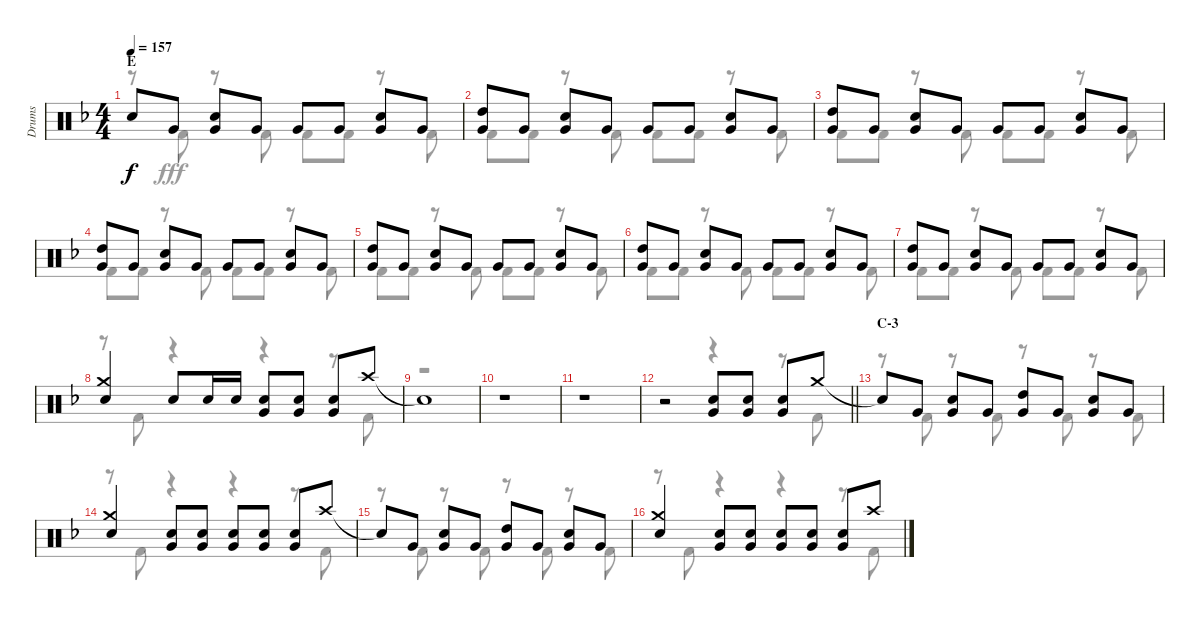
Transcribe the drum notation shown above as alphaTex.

\track ("Drums" "Drums") {instrument percussion}
\staff {score}
\articulation defaults
\voice
\ts (4 4)
\section ("" "E")
\tempo 157
\clef neutral
\ks f "Snare (hit)"{t}.8{dy f} "Very Low Tom (hit)".8
("Snare (hit) 2" "Very Low Tom (hit)").8 "Very Low Tom (hit)".8 "Very Low Tom (hit)".8 "Very Low Tom (hit)".8 ("Snare (hit) 2" "Very Low Tom (hit)").8 "Very Low Tom (hit)".8 |
("High Tom (hit)" "Very Low Tom (hit)").8 "Very Low Tom (hit)".8 ("Snare (hit) 2" "Very Low Tom (hit)").8 "Very Low Tom (hit)".8 "Very Low Tom (hit)".8 "Very Low Tom (hit)".8 ("Snare (hit) 2" "Very Low Tom (hit)").8 "Very Low Tom (hit)".8 |
("High Tom (hit)" "Very Low Tom (hit)").8 "Very Low Tom (hit)".8 ("Snare (hit) 2" "Very Low Tom (hit)").8 "Very Low Tom (hit)".8 "Very Low Tom (hit)".8 "Very Low Tom (hit)".8 ("Snare (hit) 2" "Very Low Tom (hit)").8 "Very Low Tom (hit)".8 |
("High Tom (hit)" "Very Low Tom (hit)").8 "Very Low Tom (hit)".8 ("Snare (hit) 2" "Very Low Tom (hit)").8 "Very Low Tom (hit)".8 "Very Low Tom (hit)".8 "Very Low Tom (hit)".8 ("Snare (hit) 2" "Very Low Tom (hit)").8 "Very Low Tom (hit)".8 |
("High Tom (hit)" "Very Low Tom (hit)").8 "Very Low Tom (hit)".8 ("Snare (hit) 2" "Very Low Tom (hit)").8 "Very Low Tom (hit)".8 "Very Low Tom (hit)".8 "Very Low Tom (hit)".8 ("Snare (hit) 2" "Very Low Tom (hit)").8 "Very Low Tom (hit)".8 |
("High Tom (hit)" "Very Low Tom (hit)").8 "Very Low Tom (hit)".8 ("Snare (hit) 2" "Very Low Tom (hit)").8 "Very Low Tom (hit)".8 "Very Low Tom (hit)".8 "Very Low Tom (hit)".8 ("Snare (hit) 2" "Very Low Tom (hit)").8 "Very Low Tom (hit)".8 |
("High Tom (hit)" "Very Low Tom (hit)").8 "Very Low Tom (hit)".8 ("Snare (hit) 2" "Very Low Tom (hit)").8 "Very Low Tom (hit)".8 "Very Low Tom (hit)".8 "Very Low Tom (hit)".8 ("Snare (hit) 2" "Very Low Tom (hit)").8 "Very Low Tom (hit)".8 |
("Crash medium (hit)" "Snare (hit) 2").4 "Snare (hit) 2".8 "Snare (hit) 2".16 "Snare (hit) 2".16 ("Snare (hit) 2" "Very Low Tom (hit)").8 ("Snare (hit) 2" "Very Low Tom (hit)").8 ("Snare (hit) 2" "Very Low Tom (hit)").8 "Crash high (hit)".8 |
"Snare (hit)"{t}.1 |
r.1 |
r.1 |
\barLineRight lightlight
r.2 ("Snare (hit) 2" "Very Low Tom (hit)").8 ("Snare (hit) 2" "Very Low Tom (hit)").8 ("Snare (hit) 2" "Very Low Tom (hit)").8 "Crash medium (hit)".8 |
\section ("" "C-3")
"Snare (hit)"{t}.8 "Very Low Tom (hit)".8 ("Snare (hit) 2" "Very Low Tom (hit)").8 "Very Low Tom (hit)".8 ("High Tom (hit)" "Very Low Tom (hit)").8 "Very Low Tom (hit)".8 ("Snare (hit) 2" "Very Low Tom (hit)").8 "Very Low Tom (hit)".8 |
("Crash medium (hit)" "Snare (hit) 2").4 ("Snare (hit) 2" "Very Low Tom (hit)").8 ("Snare (hit) 2" "Very Low Tom (hit)").8 ("Snare (hit) 2" "Very Low Tom (hit)").8 ("Snare (hit) 2" "Very Low Tom (hit)").8 ("Snare (hit) 2" "Very Low Tom (hit)").8 "Crash high (hit)".8 |
"Snare (hit)"{t}.8 "Very Low Tom (hit)".8 ("Snare (hit) 2" "Very Low Tom (hit)").8 "Very Low Tom (hit)".8 ("High Tom (hit)" "Very Low Tom (hit)").8 "Very Low Tom (hit)".8 ("Snare (hit) 2" "Very Low Tom (hit)").8 "Very Low Tom (hit)".8 |
("Crash medium (hit)" "Snare (hit) 2").4 ("Snare (hit) 2" "Very Low Tom (hit)").8 ("Snare (hit) 2" "Very Low Tom (hit)").8 ("Snare (hit) 2" "Very Low Tom (hit)").8 ("Snare (hit) 2" "Very Low Tom (hit)").8 ("Snare (hit) 2" "Very Low Tom (hit)").8 "Crash high (hit)".8
\voice
\clef neutral
\ottava regular
\simile none
\ks f
r.8{dy fff} "Kick (hit) 2".8 r.8 "Kick (hit) 2".8 "Kick (hit) 2".8 "Kick (hit) 2".8 r.8 "Kick (hit) 2".8 |
"Kick (hit) 2".8 "Kick (hit) 2".8 r.8 "Kick (hit) 2".8 "Kick (hit) 2".8 "Kick (hit) 2".8 r.8 "Kick (hit) 2".8 |
"Kick (hit) 2".8 "Kick (hit) 2".8 r.8 "Kick (hit) 2".8 "Kick (hit) 2".8 "Kick (hit) 2".8 r.8 "Kick (hit) 2".8 |
"Kick (hit) 2".8 "Kick (hit) 2".8 r.8 "Kick (hit) 2".8 "Kick (hit) 2".8 "Kick (hit) 2".8 r.8 "Kick (hit) 2".8 |
"Kick (hit) 2".8 "Kick (hit) 2".8 r.8 "Kick (hit) 2".8 "Kick (hit) 2".8 "Kick (hit) 2".8 r.8 "Kick (hit) 2".8 |
"Kick (hit) 2".8 "Kick (hit) 2".8 r.8 "Kick (hit) 2".8 "Kick (hit) 2".8 "Kick (hit) 2".8 r.8 "Kick (hit) 2".8 |
"Kick (hit) 2".8 "Kick (hit) 2".8 r.8 "Kick (hit) 2".8 "Kick (hit) 2".8 "Kick (hit) 2".8 r.8 "Kick (hit) 2".8 |
r.8 "Kick (hit) 2".8 r.4 r.4 r.8 "Kick (hit) 2".8 |
r.1 |
r.1 |
r.1 |
\barLineRight lightlight
r.2 r.4 r.8 "Kick (hit) 2".8 |
r.8 "Kick (hit) 2".8 r.8 "Kick (hit) 2".8 r.8 "Kick (hit) 2".8 r.8 "Kick (hit) 2".8 |
r.8 "Kick (hit) 2".8 r.4 r.4 r.8 "Kick (hit) 2".8 |
r.8 "Kick (hit) 2".8 r.8 "Kick (hit) 2".8 r.8 "Kick (hit) 2".8 r.8 "Kick (hit) 2".8 |
r.8 "Kick (hit) 2".8 r.4 r.4 r.8 "Kick (hit) 2".8
